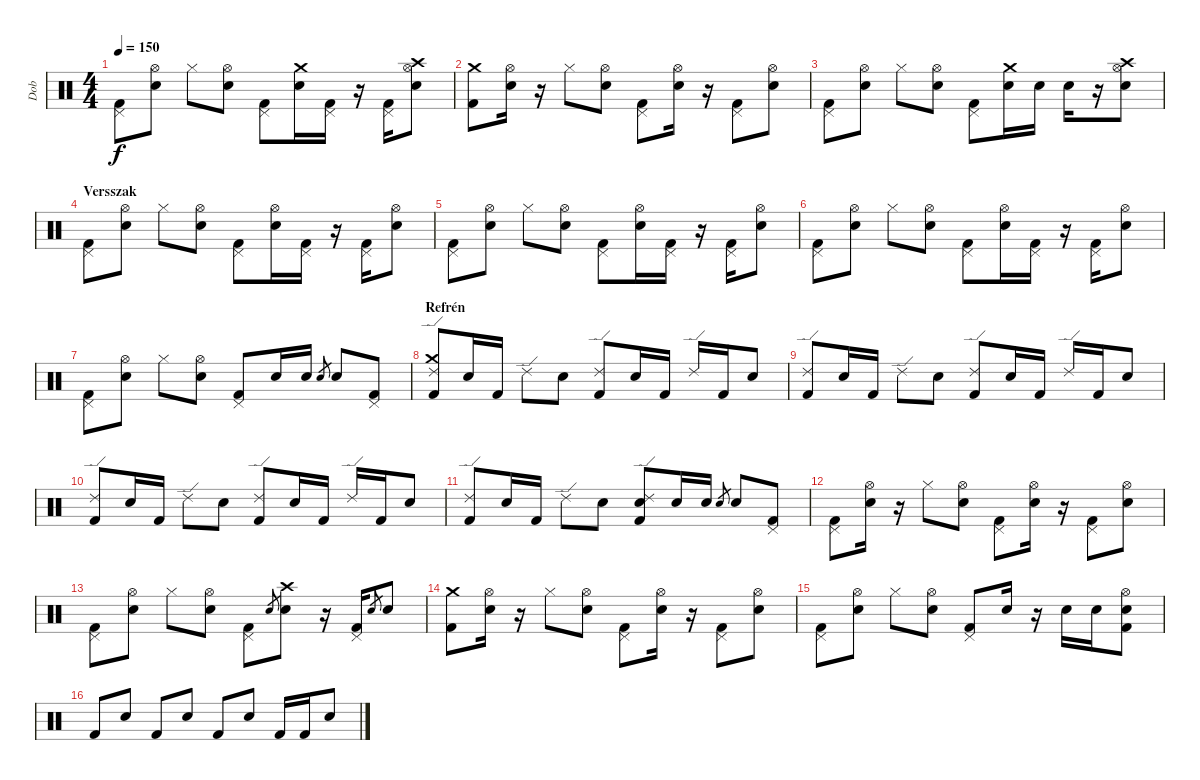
\track ("Dob" "Dob") {instrument percussion}
\staff {score}
\articulation defaults
\ts (4 4)
\tempo 150
\clef neutral
\ks c
("Kick (hit) 2" "Pedal Hi-Hat (hit)").8{dy f} ("Snare (hit) 2" "Hi-Hat (open)").8 "Hi-Hat (closed)".8 ("Snare (hit) 2" "Hi-Hat (open)").8 ("Kick (hit) 2" "Pedal Hi-Hat (hit)").8 ("Snare (hit) 2" "Crash medium (hit)").16 ("Kick (hit) 2" "Pedal Hi-Hat (hit)").16 r.16 ("Kick (hit) 2" "Pedal Hi-Hat (hit)").16 ("Snare (hit) 2" "Hi-Hat (open)" "Crash high (hit)").8 |
("Kick (hit) 2" "Crash medium (hit)").8 ("Snare (hit) 2" "Hi-Hat (open)").16 r.16 "Hi-Hat (closed)".8 ("Snare (hit) 2" "Hi-Hat (open)").8 ("Kick (hit) 2" "Pedal Hi-Hat (hit)").8 ("Snare (hit) 2" "Hi-Hat (open)").16 r.16 ("Kick (hit) 2" "Pedal Hi-Hat (hit)").8 ("Snare (hit) 2" "Hi-Hat (open)").8 |
("Kick (hit) 2" "Pedal Hi-Hat (hit)").8 ("Snare (hit) 2" "Hi-Hat (open)").8 "Hi-Hat (closed)".8 ("Snare (hit) 2" "Hi-Hat (open)").8 ("Kick (hit) 2" "Pedal Hi-Hat (hit)").8 ("Snare (hit) 2" "Crash medium (hit)").16 "Snare (hit) 2".16 "Snare (hit) 2".16 r.16 ("Snare (hit) 2" "Hi-Hat (open)" "Crash high (hit)").8 |
\section ("" "Versszak")
("Kick (hit) 2" "Pedal Hi-Hat (hit)").8 ("Snare (hit) 2" "Hi-Hat (open)").8 "Hi-Hat (closed)".8 ("Snare (hit) 2" "Hi-Hat (open)").8 ("Kick (hit) 2" "Pedal Hi-Hat (hit)").8 ("Snare (hit) 2" "Hi-Hat (open)").16 ("Kick (hit) 2" "Pedal Hi-Hat (hit)").16 r.16 ("Kick (hit) 2" "Pedal Hi-Hat (hit)").16 ("Snare (hit) 2" "Hi-Hat (open)").8 |
("Kick (hit) 2" "Pedal Hi-Hat (hit)").8 ("Snare (hit) 2" "Hi-Hat (open)").8 "Hi-Hat (closed)".8 ("Snare (hit) 2" "Hi-Hat (open)").8 ("Kick (hit) 2" "Pedal Hi-Hat (hit)").8 ("Snare (hit) 2" "Hi-Hat (open)").16 ("Kick (hit) 2" "Pedal Hi-Hat (hit)").16 r.16 ("Kick (hit) 2" "Pedal Hi-Hat (hit)").16 ("Snare (hit) 2" "Hi-Hat (open)").8 |
("Kick (hit) 2" "Pedal Hi-Hat (hit)").8 ("Snare (hit) 2" "Hi-Hat (open)").8 "Hi-Hat (closed)".8 ("Snare (hit) 2" "Hi-Hat (open)").8 ("Kick (hit) 2" "Pedal Hi-Hat (hit)").8 ("Snare (hit) 2" "Hi-Hat (open)").16 ("Kick (hit) 2" "Pedal Hi-Hat (hit)").16 r.16 ("Kick (hit) 2" "Pedal Hi-Hat (hit)").16 ("Snare (hit) 2" "Hi-Hat (open)").8 |
("Kick (hit) 2" "Pedal Hi-Hat (hit)").8 ("Snare (hit) 2" "Hi-Hat (open)").8 "Hi-Hat (closed)".8 ("Snare (hit) 2" "Hi-Hat (open)").8 ("Kick (hit) 2" "Pedal Hi-Hat (hit)").8 "Snare (hit) 2".16 "Snare (hit) 2".16 "Snare (hit) 2".8{gr} "Snare (hit) 2".8 ("Kick (hit) 2" "Pedal Hi-Hat (hit)").8 |
\section ("" "Refrén")
("Kick (hit) 2" "Crash medium (hit)" "Ride (edge) 2").8 "Snare (hit) 2".16 "Kick (hit) 2".16 "Ride (edge) 2".8 "Snare (hit) 2".8 ("Kick (hit) 2" "Ride (edge) 2").8 "Snare (hit) 2".16 "Kick (hit) 2".16 "Ride (edge) 2".16 "Kick (hit) 2".16 "Snare (hit) 2".8 |
("Kick (hit) 2" "Ride (edge) 2").8 "Snare (hit) 2".16 "Kick (hit) 2".16 "Ride (edge) 2".8 "Snare (hit) 2".8 ("Kick (hit) 2" "Ride (edge) 2").8 "Snare (hit) 2".16 "Kick (hit) 2".16 "Ride (edge) 2".16 "Kick (hit) 2".16 "Snare (hit) 2".8 |
("Kick (hit) 2" "Ride (edge) 2").8 "Snare (hit) 2".16 "Kick (hit) 2".16 "Ride (edge) 2".8 "Snare (hit) 2".8 ("Kick (hit) 2" "Ride (edge) 2").8 "Snare (hit) 2".16 "Kick (hit) 2".16 "Ride (edge) 2".16 "Kick (hit) 2".16 "Snare (hit) 2".8 |
("Kick (hit) 2" "Ride (edge) 2").8 "Snare (hit) 2".16 "Kick (hit) 2".16 "Ride (edge) 2".8 "Snare (hit) 2".8 ("Kick (hit) 2" "Snare (hit) 2" "Ride (edge) 2").8 "Snare (hit) 2".16 "Snare (hit) 2".16 "Snare (hit) 2".8{gr} "Snare (hit) 2".8 ("Kick (hit) 2" "Pedal Hi-Hat (hit)").8 |
("Kick (hit) 2" "Pedal Hi-Hat (hit)").8 ("Snare (hit) 2" "Hi-Hat (open)").16 r.16 "Hi-Hat (closed)".8 ("Snare (hit) 2" "Hi-Hat (open)").8 ("Kick (hit) 2" "Pedal Hi-Hat (hit)").8 ("Snare (hit) 2" "Hi-Hat (open)").16 r.16 ("Kick (hit) 2" "Pedal Hi-Hat (hit)").8 ("Snare (hit) 2" "Hi-Hat (open)").8 |
("Kick (hit) 2" "Pedal Hi-Hat (hit)").8 ("Snare (hit) 2" "Hi-Hat (open)").8 "Hi-Hat (closed)".8 ("Snare (hit) 2" "Hi-Hat (open)").8 ("Kick (hit) 2" "Pedal Hi-Hat (hit)").8 "Snare (hit) 2".8{gr} ("Snare (hit) 2" "Crash high (hit)").8 r.16 ("Kick (hit) 2" "Pedal Hi-Hat (hit)").16 "Snare (hit) 2".8{gr} "Snare (hit) 2".8 |
("Kick (hit) 2" "Crash medium (hit)").8 ("Snare (hit) 2" "Hi-Hat (open)").16 r.16 "Hi-Hat (closed)".8 ("Snare (hit) 2" "Hi-Hat (open)").8 ("Kick (hit) 2" "Pedal Hi-Hat (hit)").8 ("Snare (hit) 2" "Hi-Hat (open)").16 r.16 ("Kick (hit) 2" "Pedal Hi-Hat (hit)").8 ("Snare (hit) 2" "Hi-Hat (open)").8 |
("Kick (hit) 2" "Pedal Hi-Hat (hit)").8 ("Snare (hit) 2" "Hi-Hat (open)").8 "Hi-Hat (closed)".8 ("Snare (hit) 2" "Hi-Hat (open)").8 ("Kick (hit) 2" "Pedal Hi-Hat (hit)").8 "Snare (hit) 2".16 r.16 "Snare (hit) 2".16 "Snare (hit) 2".16 ("Kick (hit) 2" "Snare (hit) 2" "Hi-Hat (open)").8 |
"Kick (hit) 2".8 "Snare (hit) 2".8 "Kick (hit) 2".8 "Snare (hit) 2".8 "Kick (hit) 2".8 "Snare (hit) 2".8 "Kick (hit) 2".16 "Kick (hit) 2".16 "Snare (hit) 2".8
